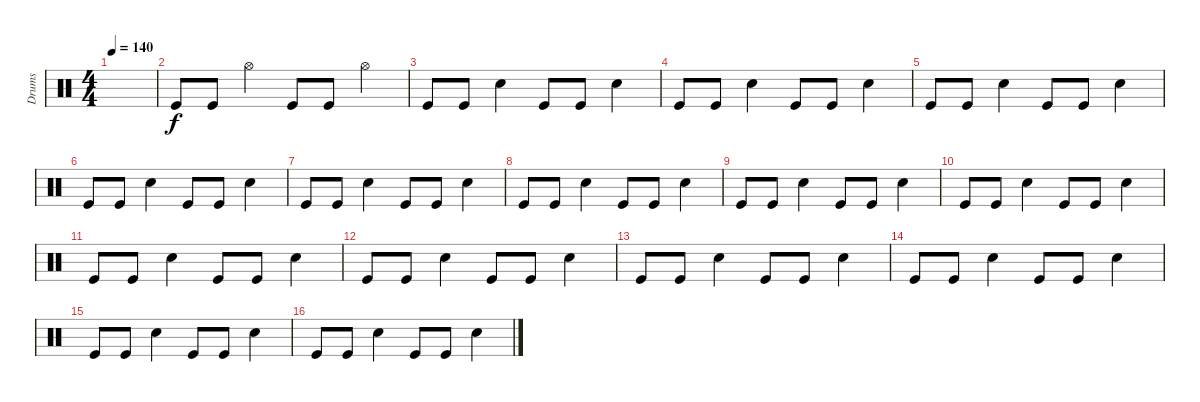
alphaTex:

\track ("Drums" "Drums") {instrument percussion}
\staff {score}
\articulation defaults
\ts (4 4)
\tempo 140
\clef neutral
\ks c
|
"Kick (hit)".8 "Kick (hit)".8 "Hi-Hat (open)".4 "Kick (hit)".8 "Kick (hit)".8 "Hi-Hat (open)".4 |
"Kick (hit)".8 "Kick (hit)".8 "Snare (hit) 2".4 "Kick (hit)".8 "Kick (hit)".8 "Snare (hit) 2".4 |
"Kick (hit)".8 "Kick (hit)".8 "Snare (hit) 2".4 "Kick (hit)".8 "Kick (hit)".8 "Snare (hit) 2".4 |
"Kick (hit)".8 "Kick (hit)".8 "Snare (hit) 2".4 "Kick (hit)".8 "Kick (hit)".8 "Snare (hit) 2".4 |
"Kick (hit)".8 "Kick (hit)".8 "Snare (hit) 2".4 "Kick (hit)".8 "Kick (hit)".8 "Snare (hit) 2".4 |
"Kick (hit)".8 "Kick (hit)".8 "Snare (hit) 2".4 "Kick (hit)".8 "Kick (hit)".8 "Snare (hit) 2".4 |
"Kick (hit)".8 "Kick (hit)".8 "Snare (hit) 2".4 "Kick (hit)".8 "Kick (hit)".8 "Snare (hit) 2".4 |
"Kick (hit)".8 "Kick (hit)".8 "Snare (hit) 2".4 "Kick (hit)".8 "Kick (hit)".8 "Snare (hit) 2".4 |
"Kick (hit)".8 "Kick (hit)".8 "Snare (hit) 2".4 "Kick (hit)".8 "Kick (hit)".8 "Snare (hit) 2".4 |
"Kick (hit)".8 "Kick (hit)".8 "Snare (hit) 2".4 "Kick (hit)".8 "Kick (hit)".8 "Snare (hit) 2".4 |
"Kick (hit)".8 "Kick (hit)".8 "Snare (hit) 2".4 "Kick (hit)".8 "Kick (hit)".8 "Snare (hit) 2".4 |
"Kick (hit)".8 "Kick (hit)".8 "Snare (hit) 2".4 "Kick (hit)".8 "Kick (hit)".8 "Snare (hit) 2".4 |
"Kick (hit)".8 "Kick (hit)".8 "Snare (hit) 2".4 "Kick (hit)".8 "Kick (hit)".8 "Snare (hit) 2".4 |
"Kick (hit)".8 "Kick (hit)".8 "Snare (hit) 2".4 "Kick (hit)".8 "Kick (hit)".8 "Snare (hit) 2".4 |
"Kick (hit)".8 "Kick (hit)".8 "Snare (hit) 2".4 "Kick (hit)".8 "Kick (hit)".8 "Snare (hit) 2".4
